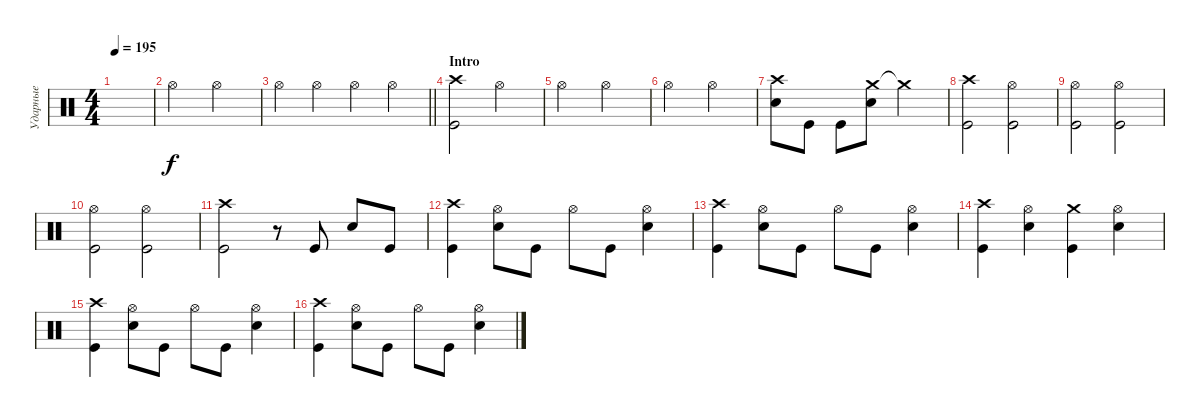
\track ("Ударные" "Ударные") {instrument percussion}
\staff {score}
\articulation defaults
\ts (4 4)
\tempo 195
\clef neutral
\ks c
|
"Hi-Hat (open)".2 "Hi-Hat (open)".2 |
\barLineRight lightlight "Hi-Hat (open)".4 "Hi-Hat (open)".4 "Hi-Hat (open)".4 "Hi-Hat (open)".4
|
\section ("" "Intro")
("Kick (hit)" "Crash high (hit)").2 "Hi-Hat (open)".2 |
"Hi-Hat (open)".2 "Hi-Hat (open)".2 |
"Hi-Hat (open)".2 "Hi-Hat (open)".2 |
("Snare (hit) 2" "Crash high (hit)").8 "Kick (hit)".8 "Kick (hit)".8 ("Crash medium (hit)" "Snare (hit) 2").8 "Crash medium (hit)"{t}.2 |
("Kick (hit)" "Crash high (hit)").2 ("Hi-Hat (open)" "Kick (hit)").2 |
("Hi-Hat (open)" "Kick (hit)").2 ("Hi-Hat (open)" "Kick (hit)").2 |
("Kick (hit)" "Hi-Hat (open)").2 ("Kick (hit)" "Hi-Hat (open)").2 |
("Kick (hit)" "Crash high (hit)").2 r.8 "Kick (hit)".8 "Snare (hit) 2".8 "Kick (hit)".8 |
("Kick (hit)" "Crash high (hit)").4 ("Snare (hit) 2" "Hi-Hat (open)").8 "Kick (hit)".8 "Hi-Hat (open)".8 "Kick (hit)".8 ("Snare (hit) 2" "Hi-Hat (open)").4 |
("Kick (hit)" "Crash high (hit)").4 ("Snare (hit) 2" "Hi-Hat (open)").8 "Kick (hit)".8 "Hi-Hat (open)".8 "Kick (hit)".8 ("Snare (hit) 2" "Hi-Hat (open)").4 |
("Kick (hit)" "Crash high (hit)").4 ("Snare (hit) 2" "Hi-Hat (open)").4 ("Kick (hit)" "Crash medium (hit)").4 ("Snare (hit) 2" "Hi-Hat (open)").4 |
("Kick (hit)" "Crash high (hit)").4 ("Snare (hit) 2" "Hi-Hat (open)").8 "Kick (hit)".8 "Hi-Hat (open)".8 "Kick (hit)".8 ("Snare (hit) 2" "Hi-Hat (open)").4 |
("Kick (hit)" "Crash high (hit)").4 ("Snare (hit) 2" "Hi-Hat (open)").8 "Kick (hit)".8 "Hi-Hat (open)".8 "Kick (hit)".8 ("Snare (hit) 2" "Hi-Hat (open)").4
